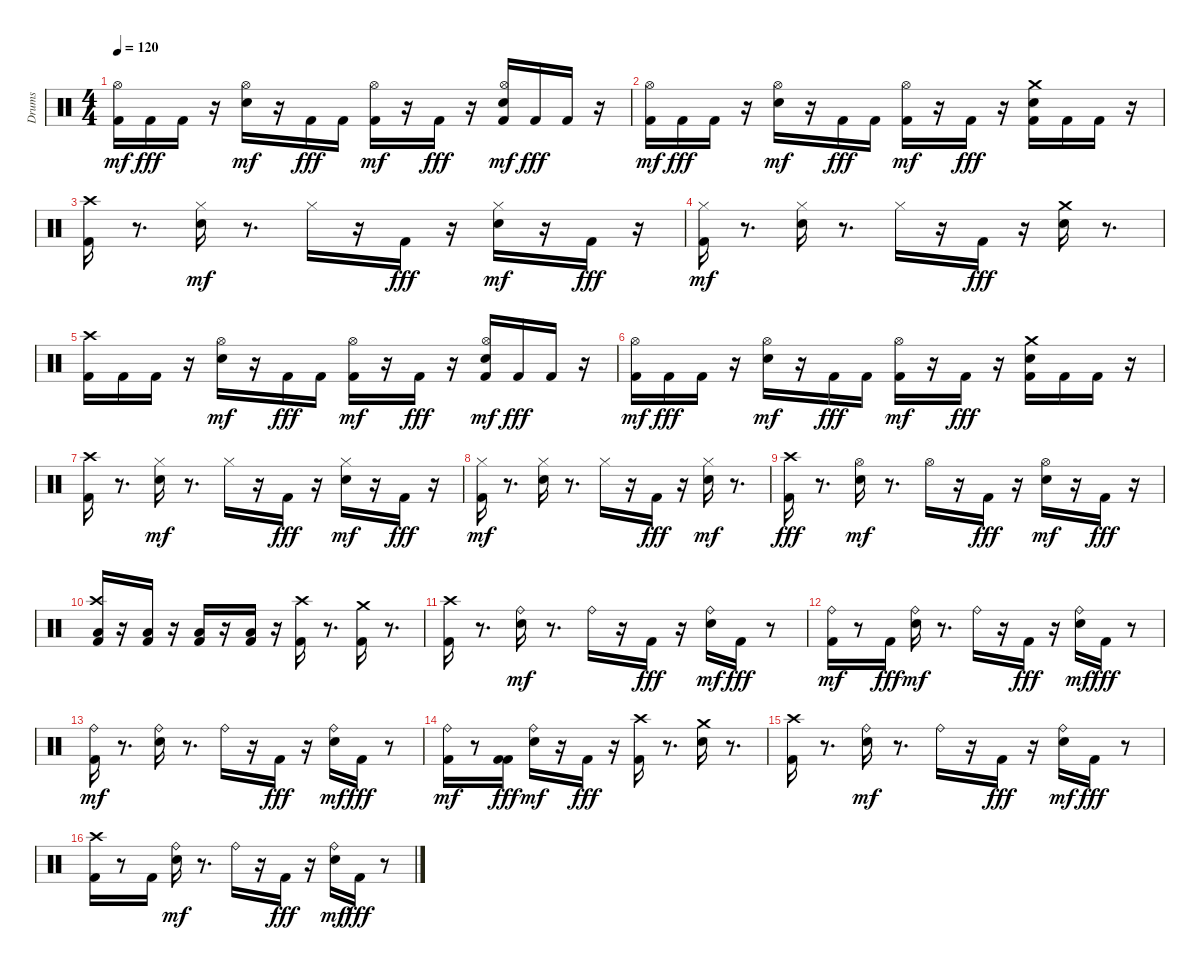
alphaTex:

\track ("Drums" "Drums") {instrument percussion}
\staff {score}
\articulation defaults
\ts (4 4)
\tempo 120
\clef neutral
\ks c
("Kick (hit) 2" "Hi-Hat (open)").16{dy mf} "Kick (hit) 2".16{dy fff} "Kick (hit) 2".16 r.16 ("Electric Snare (hit)" "Hi-Hat (open)").16{dy mf} r.16 "Kick (hit) 2".16{dy fff} "Kick (hit) 2".16 ("Kick (hit) 2" "Hi-Hat (open)").16{dy mf} r.16 "Kick (hit) 2".16{dy fff} r.16 ("Electric Snare (hit)" "Kick (hit) 2" "Hi-Hat (open)").16{dy mf} "Kick (hit) 2".16{dy fff} "Kick (hit) 2".16 r.16 |
("Kick (hit) 2" "Hi-Hat (open)").16{dy mf} "Kick (hit) 2".16{dy fff} "Kick (hit) 2".16 r.16 ("Electric Snare (hit)" "Hi-Hat (open)").16{dy mf} r.16 "Kick (hit) 2".16{dy fff} "Kick (hit) 2".16 ("Kick (hit) 2" "Hi-Hat (open)").16{dy mf} r.16 "Kick (hit) 2".16{dy fff} r.16 ("Electric Snare (hit)" "Kick (hit) 2" "Crash medium (hit)").16 "Kick (hit) 2".16 "Kick (hit) 2".16 r.16 |
("Kick (hit) 2" "Crash high (hit)").16 r.8{d} ("Electric Snare (hit)" "Hi-Hat (closed)").16{dy mf} r.8{d} "Hi-Hat (closed)".16 r.16 "Kick (hit) 2".16{dy fff} r.16 ("Electric Snare (hit)" "Hi-Hat (closed)").16{dy mf} r.16 "Kick (hit) 2".16{dy fff} r.16 |
("Kick (hit) 2" "Hi-Hat (closed)").16{dy mf} r.8{d} ("Electric Snare (hit)" "Hi-Hat (closed)").16 r.8{d} "Hi-Hat (closed)".16 r.16 "Kick (hit) 2".16{dy fff} r.16 ("Electric Snare (hit)" "Crash medium (hit)").16 r.8{d} |
("Kick (hit) 2" "Crash high (hit)").16 "Kick (hit) 2".16 "Kick (hit) 2".16 r.16 ("Electric Snare (hit)" "Hi-Hat (open)").16{dy mf} r.16 "Kick (hit) 2".16{dy fff} "Kick (hit) 2".16 ("Kick (hit) 2" "Hi-Hat (open)").16{dy mf} r.16 "Kick (hit) 2".16{dy fff} r.16 ("Electric Snare (hit)" "Kick (hit) 2" "Hi-Hat (open)").16{dy mf} "Kick (hit) 2".16{dy fff} "Kick (hit) 2".16 r.16 |
("Kick (hit) 2" "Hi-Hat (open)").16{dy mf} "Kick (hit) 2".16{dy fff} "Kick (hit) 2".16 r.16 ("Electric Snare (hit)" "Hi-Hat (open)").16{dy mf} r.16 "Kick (hit) 2".16{dy fff} "Kick (hit) 2".16 ("Kick (hit) 2" "Hi-Hat (open)").16{dy mf} r.16 "Kick (hit) 2".16{dy fff} r.16 ("Electric Snare (hit)" "Kick (hit) 2" "Crash medium (hit)").16 "Kick (hit) 2".16 "Kick (hit) 2".16 r.16 |
("Kick (hit) 2" "Crash high (hit)").16 r.8{d} ("Electric Snare (hit)" "Hi-Hat (closed)").16{dy mf} r.8{d} "Hi-Hat (closed)".16 r.16 "Kick (hit) 2".16{dy fff} r.16 ("Electric Snare (hit)" "Hi-Hat (closed)").16{dy mf} r.16 "Kick (hit) 2".16{dy fff} r.16 |
("Kick (hit) 2" "Hi-Hat (closed)").16{dy mf} r.8{d} ("Electric Snare (hit)" "Hi-Hat (closed)").16 r.8{d} "Hi-Hat (closed)".16 r.16 "Kick (hit) 2".16{dy fff} r.16 ("Electric Snare (hit)" "Hi-Hat (closed)").16{dy mf} r.8{d} |
("Kick (hit) 2" "Crash high (hit)").16{dy fff} r.8{d} ("Electric Snare (hit)" "Hi-Hat (open)").16{dy mf} r.8{d} "Hi-Hat (open)".16 r.16 "Kick (hit) 2".16{dy fff} r.16 ("Electric Snare (hit)" "Hi-Hat (open)").16{dy mf} r.16 "Kick (hit) 2".16{dy fff} r.16 |
("Kick (hit) 2" "Low Floor Tom (hit)" "Crash high (hit)").16 r.16 ("Kick (hit) 2" "Low Floor Tom (hit)").16 r.16 ("Kick (hit) 2" "Low Floor Tom (hit)").16 r.16 ("Kick (hit) 2" "Low Floor Tom (hit)").16 r.16 ("Kick (hit) 2" "Crash high (hit)").16 r.8{d} ("Kick (hit) 2" "Crash medium (hit)").16 r.8{d} |
("Kick (hit) 2" "Crash high (hit)").16 r.8{d} ("Electric Snare (hit)" "Ride (bell)").16{dy mf} r.8{d} "Ride (bell)".16 r.16 "Kick (hit) 2".16{dy fff} r.16 ("Electric Snare (hit)" "Ride (bell)").16{dy mf} "Kick (hit) 2".16{dy fff} r.8 |
("Kick (hit) 2" "Ride (bell)").16{dy mf} r.8 "Kick (hit) 2".16{dy fff} ("Electric Snare (hit)" "Ride (bell)").16{dy mf} r.8{d} "Ride (bell)".16 r.16 "Kick (hit) 2".16{dy fff} r.16 ("Electric Snare (hit)" "Ride (bell)").16{dy mf} "Kick (hit) 2".16{dy fff} r.8 |
("Kick (hit) 2" "Ride (bell)").16{dy mf} r.8{d} ("Electric Snare (hit)" "Ride (bell)").16 r.8{d} "Ride (bell)".16 r.16 "Kick (hit) 2".16{dy fff} r.16 ("Electric Snare (hit)" "Ride (bell)").16{dy mf} "Kick (hit) 2".16{dy fff} r.8 |
("Kick (hit) 2" "Ride (bell)").16{dy mf} r.8 ("Kick (hit) 2" "Kick (hit) 2").16{dy fff} ("Electric Snare (hit)" "Ride (bell)").16{dy mf} r.16 "Kick (hit) 2".16{dy fff} r.16 ("Kick (hit) 2" "Crash high (hit)").16 r.8{d} ("Electric Snare (hit)" "Crash medium (hit)").16 r.8{d} |
("Kick (hit) 2" "Crash high (hit)").16 r.8{d} ("Electric Snare (hit)" "Ride (bell)").16{dy mf} r.8{d} "Ride (bell)".16 r.16 "Kick (hit) 2".16{dy fff} r.16 ("Electric Snare (hit)" "Ride (bell)").16{dy mf} "Kick (hit) 2".16{dy fff} r.8 |
("Kick (hit) 2" "Crash high (hit)").16 r.8 "Kick (hit) 2".16 ("Electric Snare (hit)" "Ride (bell)").16{dy mf} r.8{d} "Ride (bell)".16 r.16 "Kick (hit) 2".16{dy fff} r.16 ("Electric Snare (hit)" "Ride (bell)").16{dy mf} "Kick (hit) 2".16{dy fff} r.8
